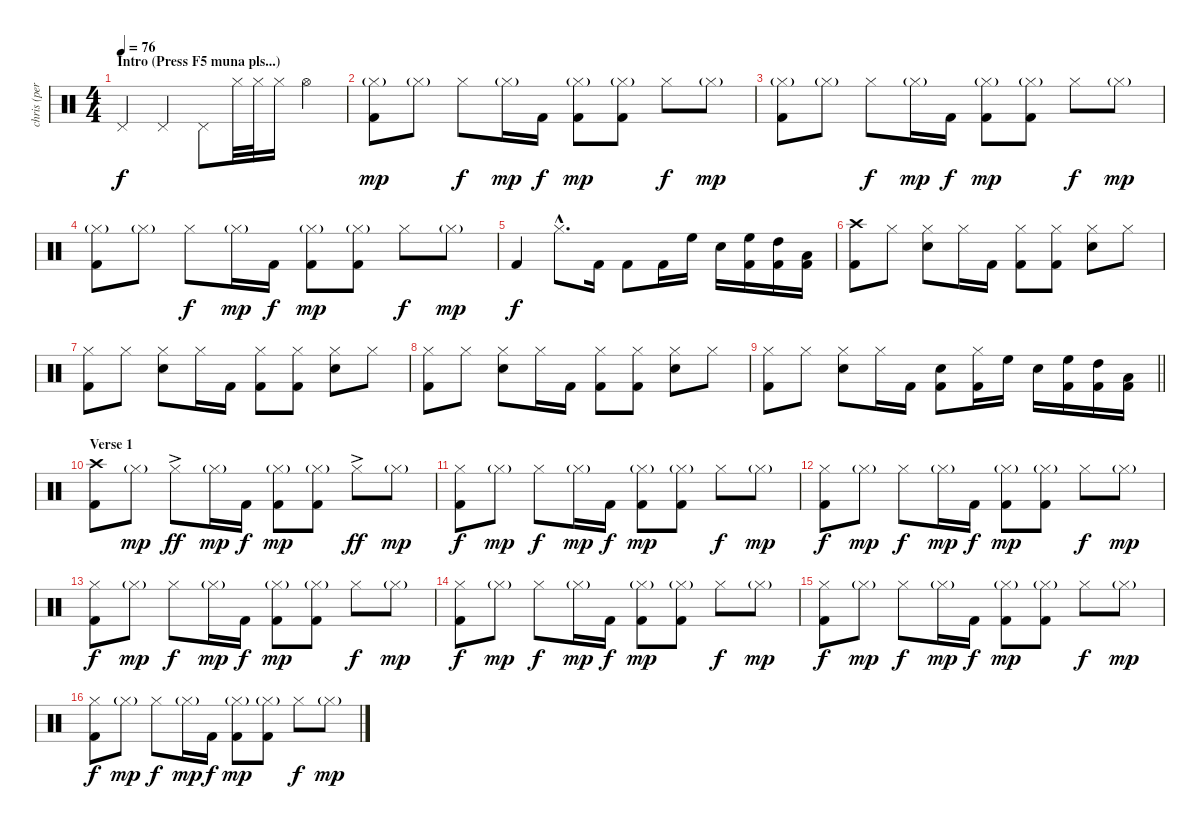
\track ("chris (percussion)" "chris (per") {instrument percussion}
\staff {score}
\articulation defaults
\ts (4 4)
\section ("" "Intro (Press F5 muna pls...)")
\tempo 76
\clef neutral
\ks c "Pedal Hi-Hat (hit)".4{dy f} "Pedal Hi-Hat (hit)".4 "Pedal Hi-Hat (hit)".8 "Hi-Hat (closed)".32 "Hi-Hat (closed)".32 "Hi-Hat (closed)".16 "Hi-Hat (open)".4
|
("Hi-Hat (closed)"{g} "Kick (hit) 2").8{dy mp} "Hi-Hat (closed)"{g}.8 "Hi-Hat (closed)".8{dy f} "Hi-Hat (closed)"{g}.16{dy mp} "Kick (hit) 2".16{dy f} ("Hi-Hat (closed)"{g} "Kick (hit) 2").8{dy mp} ("Hi-Hat (closed)"{g} "Kick (hit) 2").8 "Hi-Hat (closed)".8{dy f} "Hi-Hat (closed)"{g}.8{dy mp} |
("Hi-Hat (closed)"{g} "Kick (hit) 2").8 "Hi-Hat (closed)"{g}.8 "Hi-Hat (closed)".8{dy f} "Hi-Hat (closed)"{g}.16{dy mp} "Kick (hit) 2".16{dy f} ("Hi-Hat (closed)"{g} "Kick (hit) 2").8{dy mp} ("Hi-Hat (closed)"{g} "Kick (hit) 2").8 "Hi-Hat (closed)".8{dy f} "Hi-Hat (closed)"{g}.8{dy mp} |
("Hi-Hat (closed)"{g} "Kick (hit) 2").8 "Hi-Hat (closed)"{g}.8 "Hi-Hat (closed)".8{dy f} "Hi-Hat (closed)"{g}.16{dy mp} "Kick (hit) 2".16{dy f} ("Hi-Hat (closed)"{g} "Kick (hit) 2").8{dy mp} ("Hi-Hat (closed)"{g} "Kick (hit) 2").8 "Hi-Hat (closed)".8{dy f} "Hi-Hat (closed)"{g}.8{dy mp} |
"Kick (hit) 2".4{dy f} "Hi-Hat (closed)"{hac}.8{d} "Kick (hit) 2".16 "Kick (hit) 2".8 "Kick (hit) 2".16 "High Floor Tom (hit)".16 "Electric Snare (hit)".16 ("High Floor Tom (hit)" "Kick (hit) 2").16 ("High Tom (hit)" "Kick (hit) 2").16 ("Low Floor Tom (hit)" "Kick (hit) 2").16 |
("Crash high (hit)" "Kick (hit) 2").8 "Hi-Hat (closed)".8 ("Hi-Hat (closed)" "Electric Snare (hit)").8 "Hi-Hat (closed)".16 "Kick (hit) 2".16 ("Hi-Hat (closed)" "Kick (hit) 2").8 ("Hi-Hat (closed)" "Kick (hit) 2").8 ("Hi-Hat (closed)" "Electric Snare (hit)").8 "Hi-Hat (closed)".8 |
("Hi-Hat (closed)" "Kick (hit) 2").8 "Hi-Hat (closed)".8 ("Hi-Hat (closed)" "Electric Snare (hit)").8 "Hi-Hat (closed)".16 "Kick (hit) 2".16 ("Hi-Hat (closed)" "Kick (hit) 2").8 ("Hi-Hat (closed)" "Kick (hit) 2").8 ("Hi-Hat (closed)" "Electric Snare (hit)").8 "Hi-Hat (closed)".8 |
("Hi-Hat (closed)" "Kick (hit) 2").8 "Hi-Hat (closed)".8 ("Hi-Hat (closed)" "Electric Snare (hit)").8 "Hi-Hat (closed)".16 "Kick (hit) 2".16 ("Hi-Hat (closed)" "Kick (hit) 2").8 ("Hi-Hat (closed)" "Kick (hit) 2").8 ("Hi-Hat (closed)" "Electric Snare (hit)").8 "Hi-Hat (closed)".8 |
\barLineRight lightlight
("Hi-Hat (closed)" "Kick (hit) 2").8 "Hi-Hat (closed)".8 ("Hi-Hat (closed)" "Electric Snare (hit)").8 "Hi-Hat (closed)".16 "Kick (hit) 2".16 ("Electric Snare (hit)" "Kick (hit) 2").8 ("Hi-Hat (closed)" "Kick (hit) 2").16 "High Floor Tom (hit)".16 "Electric Snare (hit)".16 ("High Floor Tom (hit)" "Kick (hit) 2").16 ("High Tom (hit)" "Kick (hit) 2").16 ("Low Floor Tom (hit)" "Kick (hit) 2").16 |
\section ("" "Verse 1")
("Crash high (hit)" "Kick (hit) 2").8 "Hi-Hat (closed)"{g}.8{dy mp} "Hi-Hat (closed)"{ac}.8{dy ff} "Hi-Hat (closed)"{g}.16{dy mp} "Kick (hit) 2".16{dy f} ("Hi-Hat (closed)"{g} "Kick (hit) 2").8{dy mp} ("Hi-Hat (closed)"{g} "Kick (hit) 2").8 "Hi-Hat (closed)"{ac}.8{dy ff} "Hi-Hat (closed)"{g}.8{dy mp} |
("Hi-Hat (closed)" "Kick (hit) 2").8{dy f} "Hi-Hat (closed)"{g}.8{dy mp} "Hi-Hat (closed)".8{dy f} "Hi-Hat (closed)"{g}.16{dy mp} "Kick (hit) 2".16{dy f} ("Hi-Hat (closed)"{g} "Kick (hit) 2").8{dy mp} ("Hi-Hat (closed)"{g} "Kick (hit) 2").8 "Hi-Hat (closed)".8{dy f} "Hi-Hat (closed)"{g}.8{dy mp} |
("Hi-Hat (closed)" "Kick (hit) 2").8{dy f} "Hi-Hat (closed)"{g}.8{dy mp} "Hi-Hat (closed)".8{dy f} "Hi-Hat (closed)"{g}.16{dy mp} "Kick (hit) 2".16{dy f} ("Hi-Hat (closed)"{g} "Kick (hit) 2").8{dy mp} ("Hi-Hat (closed)"{g} "Kick (hit) 2").8 "Hi-Hat (closed)".8{dy f} "Hi-Hat (closed)"{g}.8{dy mp} |
("Hi-Hat (closed)" "Kick (hit) 2").8{dy f} "Hi-Hat (closed)"{g}.8{dy mp} "Hi-Hat (closed)".8{dy f} "Hi-Hat (closed)"{g}.16{dy mp} "Kick (hit) 2".16{dy f} ("Hi-Hat (closed)"{g} "Kick (hit) 2").8{dy mp} ("Hi-Hat (closed)"{g} "Kick (hit) 2").8 "Hi-Hat (closed)".8{dy f} "Hi-Hat (closed)"{g}.8{dy mp} |
("Hi-Hat (closed)" "Kick (hit) 2").8{dy f} "Hi-Hat (closed)"{g}.8{dy mp} "Hi-Hat (closed)".8{dy f} "Hi-Hat (closed)"{g}.16{dy mp} "Kick (hit) 2".16{dy f} ("Hi-Hat (closed)"{g} "Kick (hit) 2").8{dy mp} ("Hi-Hat (closed)"{g} "Kick (hit) 2").8 "Hi-Hat (closed)".8{dy f} "Hi-Hat (closed)"{g}.8{dy mp} |
("Hi-Hat (closed)" "Kick (hit) 2").8{dy f} "Hi-Hat (closed)"{g}.8{dy mp} "Hi-Hat (closed)".8{dy f} "Hi-Hat (closed)"{g}.16{dy mp} "Kick (hit) 2".16{dy f} ("Hi-Hat (closed)"{g} "Kick (hit) 2").8{dy mp} ("Hi-Hat (closed)"{g} "Kick (hit) 2").8 "Hi-Hat (closed)".8{dy f} "Hi-Hat (closed)"{g}.8{dy mp} |
("Hi-Hat (closed)" "Kick (hit) 2").8{dy f} "Hi-Hat (closed)"{g}.8{dy mp} "Hi-Hat (closed)".8{dy f} "Hi-Hat (closed)"{g}.16{dy mp} "Kick (hit) 2".16{dy f} ("Hi-Hat (closed)"{g} "Kick (hit) 2").8{dy mp} ("Hi-Hat (closed)"{g} "Kick (hit) 2").8 "Hi-Hat (closed)".8{dy f} "Hi-Hat (closed)"{g}.8{dy mp}
